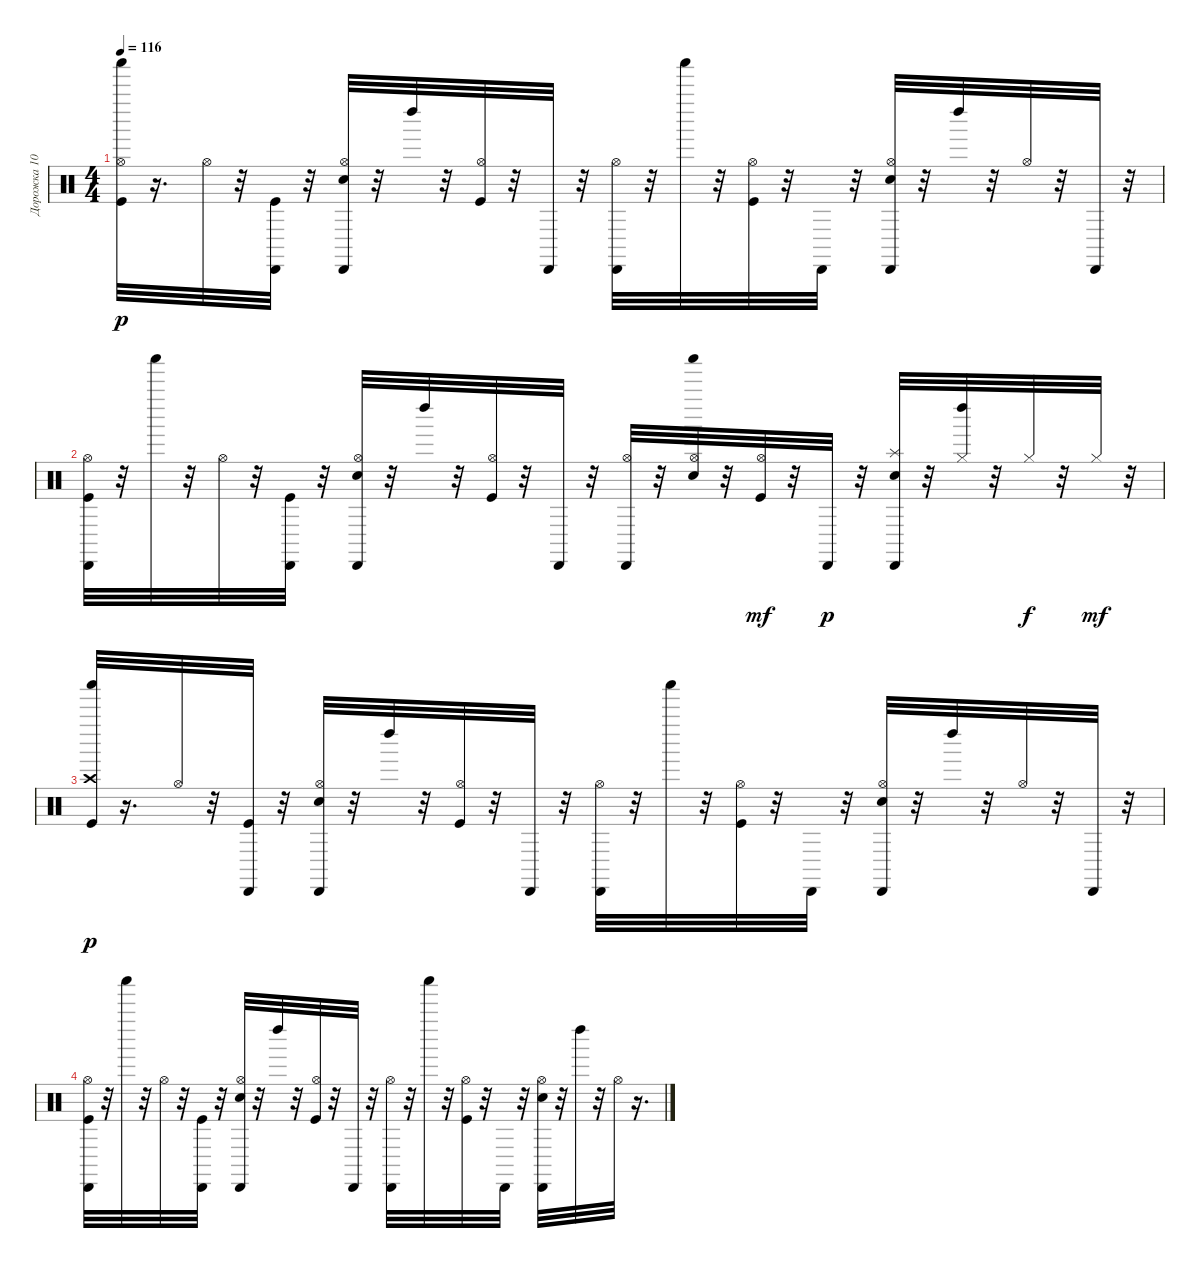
\track ("Дорожка 10" "Дорожка 10") {instrument percussion}
\staff {score}
\articulation defaults
\ts (4 4)
\tempo 116
\clef neutral
\ks c
("Kick (hit)" "Hi-Hat (open)" "Shaker (hit)").32{dy p} r.16{d} "Hi-Hat (open)".32 r.32 ("Kick (hit)" "Cabasa (hit)").32 r.32 ("Electric Snare (hit)" "Hi-Hat (open)" "Cabasa (hit)").32 r.32 "Left Maraca (hit)".32 r.32 ("Kick (hit)" "Hi-Hat (open)").32 r.32 "Cabasa (hit)".32 r.32 ("Hi-Hat (open)" "Cabasa (hit)").32 r.32 "Shaker (hit)".32 r.32 ("Kick (hit)" "Hi-Hat (open)").32 r.32 "Cabasa (hit)".32 r.32 ("Electric Snare (hit)" "Hi-Hat (open)" "Cabasa (hit)").32 r.32 "Left Maraca (hit)".32 r.32 "Hi-Hat (open)".32 r.32 "Cabasa (hit)".32 r.32 |
("Kick (hit)" "Hi-Hat (open)" "Cabasa (hit)").32 r.32 "Shaker (hit)".32 r.32 "Hi-Hat (open)".32 r.32 ("Kick (hit)" "Cabasa (hit)").32 r.32 ("Electric Snare (hit)" "Hi-Hat (open)" "Cabasa (hit)").32 r.32 "Left Maraca (hit)".32 r.32 ("Kick (hit)" "Hi-Hat (open)").32 r.32 "Cabasa (hit)".32 r.32 ("Hi-Hat (open)" "Cabasa (hit)").32 r.32 ("Electric Snare (hit)" "Hi-Hat (open)" "Shaker (hit)").32 r.32 ("Hi-Hat (open)" "Kick (hit)").32{dy mf} r.32 "Cabasa (hit)".32{dy p} r.32 ("Electric Snare (hit)" "Splash (hit)" "Cabasa (hit)").32 r.32 ("Hi-Hat (closed)" "Left Maraca (hit)").32 r.32 "Hi-Hat (closed)".32{dy f} r.32 "Hi-Hat (closed)".32{dy mf} r.32 |
("Kick (hit)" "Crash high (hit)" "Shaker (hit)").32{dy p} r.16{d} "Hi-Hat (open)".32 r.32 ("Kick (hit)" "Cabasa (hit)").32 r.32 ("Electric Snare (hit)" "Hi-Hat (open)" "Cabasa (hit)").32 r.32 "Left Maraca (hit)".32 r.32 ("Kick (hit)" "Hi-Hat (open)").32 r.32 "Cabasa (hit)".32 r.32 ("Hi-Hat (open)" "Cabasa (hit)").32 r.32 "Shaker (hit)".32 r.32 ("Kick (hit)" "Hi-Hat (open)").32 r.32 "Cabasa (hit)".32 r.32 ("Electric Snare (hit)" "Hi-Hat (open)" "Cabasa (hit)").32 r.32 "Left Maraca (hit)".32 r.32 "Hi-Hat (open)".32 r.32 "Cabasa (hit)".32 r.32 |
("Kick (hit)" "Hi-Hat (open)" "Cabasa (hit)").32 r.32 "Shaker (hit)".32 r.32 "Hi-Hat (open)".32 r.32 ("Kick (hit)" "Cabasa (hit)").32 r.32 ("Electric Snare (hit)" "Hi-Hat (open)" "Cabasa (hit)").32 r.32 "Left Maraca (hit)".32 r.32 ("Kick (hit)" "Hi-Hat (open)").32 r.32 "Cabasa (hit)".32 r.32 ("Hi-Hat (open)" "Cabasa (hit)").32 r.32 "Shaker (hit)".32 r.32 ("Hi-Hat (open)" "Kick (hit)").32 r.32 "Cabasa (hit)".32 r.32 ("Electric Snare (hit)" "Hi-Hat (open)" "Cabasa (hit)").32 r.32 "Left Maraca (hit)".32 r.32 "Hi-Hat (open)".32 r.16{d}
